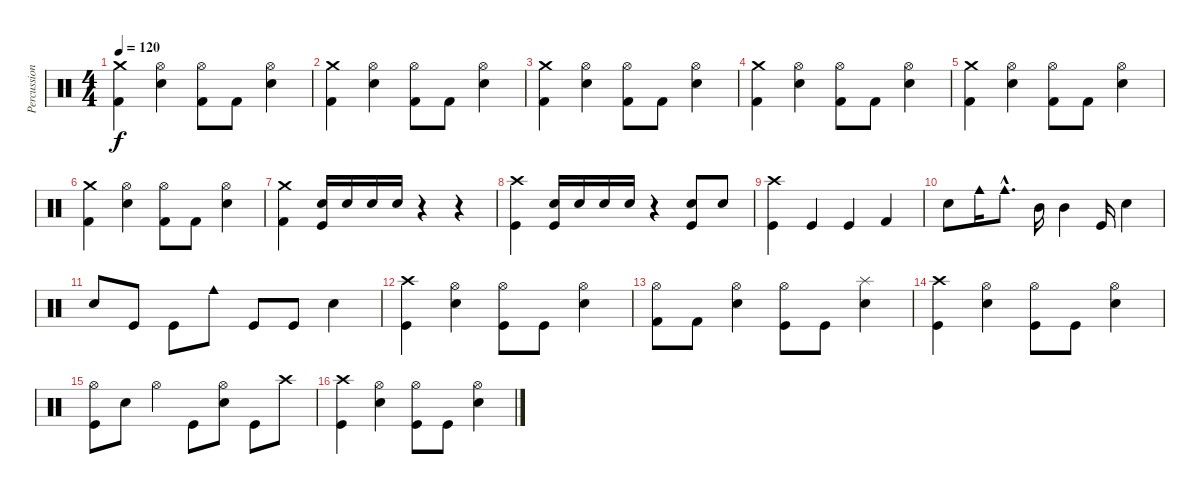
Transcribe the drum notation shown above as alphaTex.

\track ("Percussion" "Percussion") {instrument percussion}
\staff {score}
\articulation defaults
\ts (4 4)
\tempo 120
\clef neutral
\ks c
("Kick (hit) 2" "Crash medium (hit)").4{dy f} ("Snare (hit) 2" "Hi-Hat (open)").4 ("Hi-Hat (open)" "Kick (hit) 2").8 "Kick (hit) 2".8 ("Snare (hit) 2" "Hi-Hat (open)").4 |
("Kick (hit) 2" "Crash medium (hit)").4 ("Snare (hit) 2" "Hi-Hat (open)").4 ("Hi-Hat (open)" "Kick (hit) 2").8 "Kick (hit) 2".8 ("Snare (hit) 2" "Hi-Hat (open)").4 |
("Kick (hit) 2" "Crash medium (hit)").4 ("Snare (hit) 2" "Hi-Hat (open)").4 ("Hi-Hat (open)" "Kick (hit) 2").8 "Kick (hit) 2".8 ("Snare (hit) 2" "Hi-Hat (open)").4 |
("Kick (hit) 2" "Crash medium (hit)").4 ("Snare (hit) 2" "Hi-Hat (open)").4 ("Hi-Hat (open)" "Kick (hit) 2").8 "Kick (hit) 2".8 ("Snare (hit) 2" "Hi-Hat (open)").4 |
("Kick (hit) 2" "Crash medium (hit)").4 ("Snare (hit) 2" "Hi-Hat (open)").4 ("Hi-Hat (open)" "Kick (hit) 2").8 "Kick (hit) 2".8 ("Snare (hit) 2" "Hi-Hat (open)").4 |
("Kick (hit) 2" "Crash medium (hit)").4 ("Snare (hit) 2" "Hi-Hat (open)").4 ("Hi-Hat (open)" "Kick (hit) 2").8 "Kick (hit) 2".8 ("Snare (hit) 2" "Hi-Hat (open)").4 |
("Crash medium (hit)" "Kick (hit) 2").4 ("Snare (hit) 2" "Kick (hit)").16 "Snare (hit) 2".16 "Snare (hit) 2".16 "Snare (hit) 2".16 r.4 r.4 |
("Crash high (hit)" "Kick (hit)").4 ("Snare (hit) 2" "Kick (hit)").16 "Snare (hit) 2".16 "Snare (hit) 2".16 "Snare (hit) 2".16 r.4 ("Snare (hit) 2" "Kick (hit)").8 "Snare (hit) 2".8 |
("Crash high (hit)" "Kick (hit)").4 "Kick (hit)".4 "Kick (hit)".4 "Kick (hit) 2".4 |
"Snare (hit) 2".8 "Cowbell medium (hit)".16 "Cowbell medium (hit)"{hac}.8{d} "Mid Tom (hit)".16 "Mid Tom (hit)".4 "Kick (hit)".16 "Snare (hit) 2".4 |
"Snare (hit) 2".8 "Kick (hit)".8 "Kick (hit)".8 "Cowbell medium (hit)".8 "Kick (hit)".8 "Kick (hit)".8 "Snare (hit) 2".4 |
("Crash high (hit)" "Kick (hit)").4 ("Hi-Hat (open)" "Snare (hit) 2").4 ("Hi-Hat (open)" "Kick (hit)").8 "Kick (hit)".8 ("Hi-Hat (open)" "Snare (hit) 2").4 |
("Hi-Hat (open)" "Kick (hit) 2").8 "Kick (hit) 2".8 ("Hi-Hat (open)" "Snare (hit) 2").4 ("Hi-Hat (open)" "Kick (hit)").8 "Kick (hit)".8 ("Splash (hit)" "Snare (hit) 2").4 |
("Crash high (hit)" "Kick (hit)").4 ("Hi-Hat (open)" "Snare (hit) 2").4 ("Hi-Hat (open)" "Kick (hit)").8 "Kick (hit)".8 ("Hi-Hat (open)" "Snare (hit) 2").4 |
("Hi-Hat (open)" "Kick (hit)").8 "Snare (hit) 2".8 "Hi-Hat (open)".4 "Kick (hit)".8 ("Hi-Hat (open)" "Snare (hit) 2").8 "Kick (hit)".8 "Crash high (hit)".8 |
("Crash high (hit)" "Kick (hit)").4 ("Hi-Hat (open)" "Snare (hit) 2").4 ("Hi-Hat (open)" "Kick (hit)").8 "Kick (hit)".8 ("Hi-Hat (open)" "Snare (hit) 2").4
